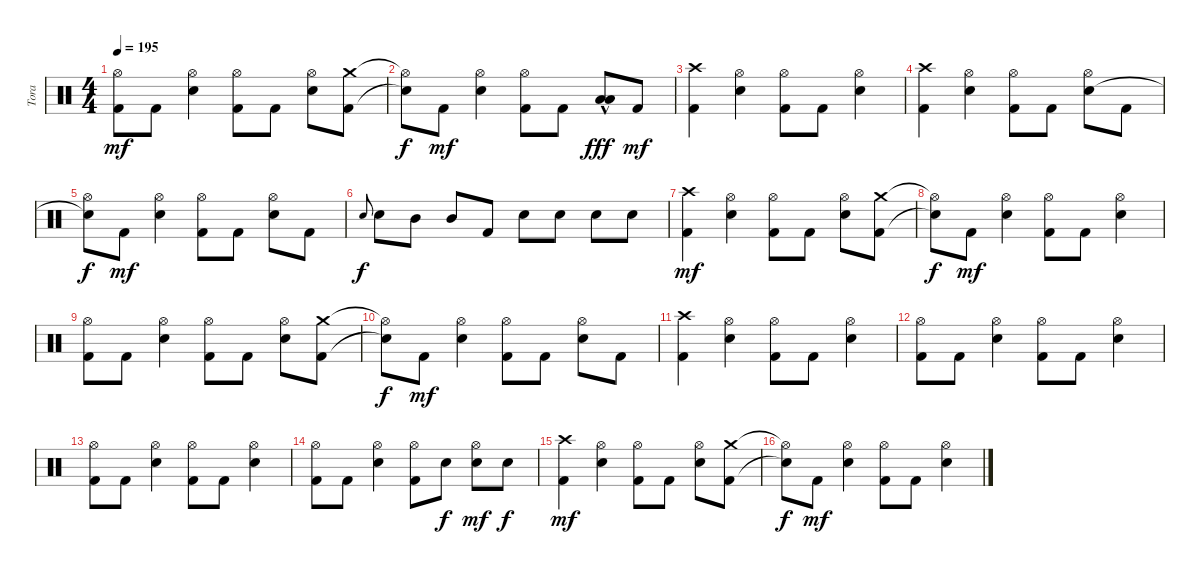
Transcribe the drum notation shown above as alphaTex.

\track ("Tora" "Tora") {instrument percussion}
\staff {score}
\articulation defaults
\ts (4 4)
\tempo 195
\clef neutral
\ks c
("Hi-Hat (open)" "Kick (hit) 2").8{dy mf} "Kick (hit) 2".8 ("Hi-Hat (open)" "Electric Snare (hit)").4 ("Hi-Hat (open)" "Kick (hit) 2").8 "Kick (hit) 2".8 ("Hi-Hat (open)" "Electric Snare (hit)").8 ("Crash medium (hit)" "Kick (hit) 2").8 |
("Hi-Hat (open)"{t} "Snare (hit)"{t}).8{dy f} "Kick (hit) 2".8{dy mf} ("Hi-Hat (open)" "Electric Snare (hit)").4 ("Hi-Hat (open)" "Kick (hit) 2").8 "Kick (hit) 2".8 ("Low Tom (hit)"{hac} "Low Tom (hit)"{hac}).8{dy fff} "Kick (hit) 2".8{dy mf} |
("Crash high (hit)" "Kick (hit) 2").4 ("Hi-Hat (open)" "Electric Snare (hit)").4 ("Hi-Hat (open)" "Kick (hit) 2").8 "Kick (hit) 2".8 ("Hi-Hat (open)" "Electric Snare (hit)").4 |
("Crash high (hit)" "Kick (hit) 2").4 ("Hi-Hat (open)" "Electric Snare (hit)").4 ("Hi-Hat (open)" "Kick (hit) 2").8 "Kick (hit) 2".8 ("Hi-Hat (open)" "Electric Snare (hit)").8 "Kick (hit) 2".8 |
("Hi-Hat (open)" "Snare (hit)"{t}).8{dy f} "Kick (hit) 2".8{dy mf} ("Hi-Hat (open)" "Electric Snare (hit)").4 ("Hi-Hat (open)" "Kick (hit) 2").8 "Kick (hit) 2".8 ("Hi-Hat (open)" "Electric Snare (hit)").8 "Kick (hit) 2".8 |
"Electric Snare (hit)".8{gr onbeat dy f} "Electric Snare (hit)".8 "Mid Tom (hit)".8 "Mid Tom (hit)".8 "Kick (hit) 2".8 "Electric Snare (hit)".8 "Electric Snare (hit)".8 "Electric Snare (hit)".8 "Electric Snare (hit)".8 |
("Crash high (hit)" "Kick (hit) 2").4{dy mf} ("Hi-Hat (open)" "Electric Snare (hit)").4 ("Hi-Hat (open)" "Kick (hit) 2").8 "Kick (hit) 2".8 ("Hi-Hat (open)" "Electric Snare (hit)").8 ("Crash medium (hit)" "Kick (hit) 2").8 |
("Hi-Hat (open)"{t} "Snare (hit)"{t}).8{dy f} "Kick (hit) 2".8{dy mf} ("Hi-Hat (open)" "Electric Snare (hit)").4 ("Hi-Hat (open)" "Kick (hit) 2").8 "Kick (hit) 2".8 ("Hi-Hat (open)" "Electric Snare (hit)").4 |
("Hi-Hat (open)" "Kick (hit) 2").8 "Kick (hit) 2".8 ("Hi-Hat (open)" "Electric Snare (hit)").4 ("Hi-Hat (open)" "Kick (hit) 2").8 "Kick (hit) 2".8 ("Hi-Hat (open)" "Electric Snare (hit)").8 ("Crash medium (hit)" "Kick (hit) 2").8 |
("Hi-Hat (open)"{t} "Snare (hit)"{t}).8{dy f} "Kick (hit) 2".8{dy mf} ("Hi-Hat (open)" "Electric Snare (hit)").4 ("Hi-Hat (open)" "Kick (hit) 2").8 "Kick (hit) 2".8 ("Hi-Hat (open)" "Electric Snare (hit)").8 "Kick (hit) 2".8 |
("Crash high (hit)" "Kick (hit) 2").4 ("Hi-Hat (open)" "Electric Snare (hit)").4 ("Hi-Hat (open)" "Kick (hit) 2").8 "Kick (hit) 2".8 ("Hi-Hat (open)" "Electric Snare (hit)").4 |
("Hi-Hat (open)" "Kick (hit) 2").8 "Kick (hit) 2".8 ("Hi-Hat (open)" "Electric Snare (hit)").4 ("Hi-Hat (open)" "Kick (hit) 2").8 "Kick (hit) 2".8 ("Hi-Hat (open)" "Electric Snare (hit)").4 |
("Hi-Hat (open)" "Kick (hit) 2").8 "Kick (hit) 2".8 ("Hi-Hat (open)" "Electric Snare (hit)").4 ("Hi-Hat (open)" "Kick (hit) 2").8 "Kick (hit) 2".8 ("Hi-Hat (open)" "Electric Snare (hit)").4 |
("Hi-Hat (open)" "Kick (hit) 2").8 "Kick (hit) 2".8 ("Hi-Hat (open)" "Electric Snare (hit)").4 ("Hi-Hat (open)" "Kick (hit) 2").8 "Electric Snare (hit)".8{dy f} ("Hi-Hat (open)" "Electric Snare (hit)").8{dy mf} "Electric Snare (hit)".8{dy f} |
("Crash high (hit)" "Kick (hit) 2").4{dy mf} ("Hi-Hat (open)" "Electric Snare (hit)").4 ("Hi-Hat (open)" "Kick (hit) 2").8 "Kick (hit) 2".8 ("Hi-Hat (open)" "Electric Snare (hit)").8 ("Crash medium (hit)" "Kick (hit) 2").8 |
("Hi-Hat (open)"{t} "Snare (hit)"{t}).8{dy f} "Kick (hit) 2".8{dy mf} ("Hi-Hat (open)" "Electric Snare (hit)").4 ("Hi-Hat (open)" "Kick (hit) 2").8 "Kick (hit) 2".8 ("Hi-Hat (open)" "Electric Snare (hit)").4
